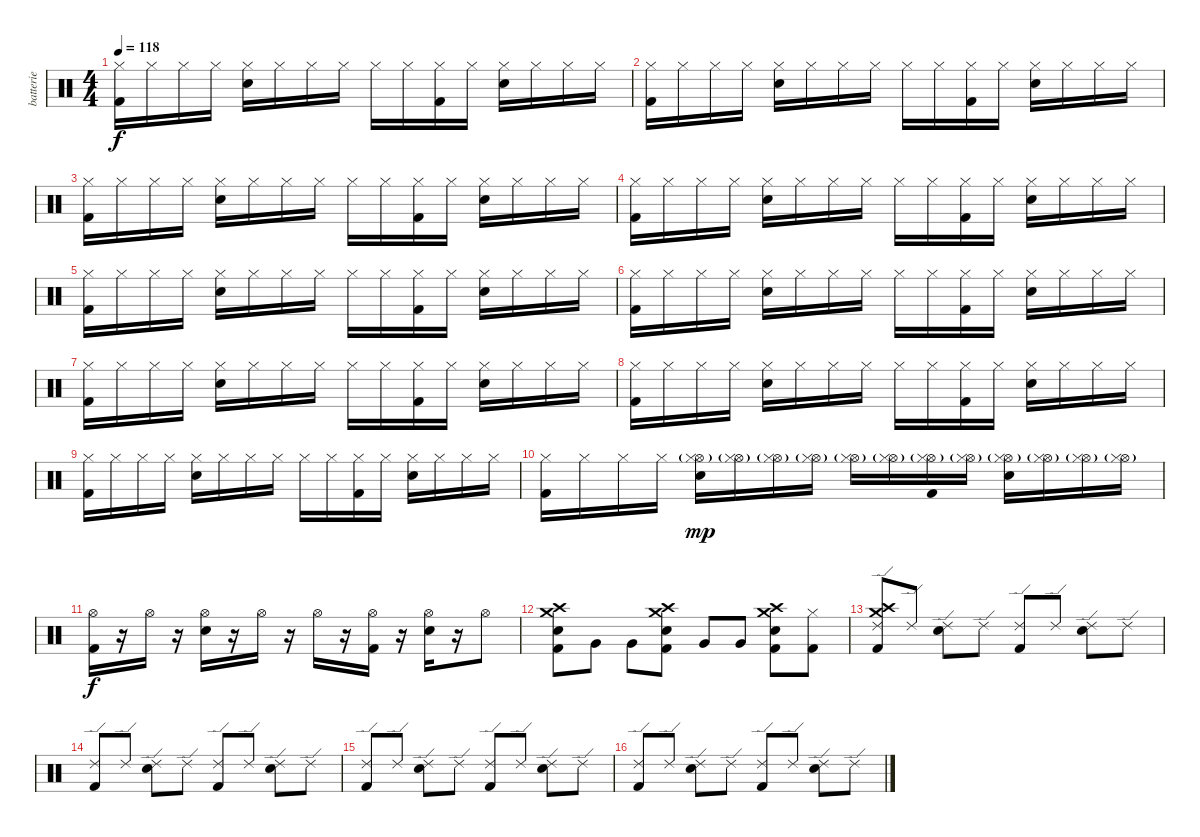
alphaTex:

\track ("batterie" "batterie") {instrument percussion}
\staff {score}
\articulation defaults
\ts (4 4)
\tempo 118
\clef neutral
\ks c
("Hi-Hat (closed)" "Kick (hit) 2").16{dy f} "Hi-Hat (closed)".16 "Hi-Hat (closed)".16 "Hi-Hat (closed)".16 ("Hi-Hat (closed)" "Electric Snare (hit)").16 "Hi-Hat (closed)".16 "Hi-Hat (closed)".16 "Hi-Hat (closed)".16 "Hi-Hat (closed)".16 "Hi-Hat (closed)".16 ("Hi-Hat (closed)" "Kick (hit) 2").16 "Hi-Hat (closed)".16 ("Hi-Hat (closed)" "Electric Snare (hit)").16 "Hi-Hat (closed)".16 "Hi-Hat (closed)".16 "Hi-Hat (closed)".16 |
("Hi-Hat (closed)" "Kick (hit) 2").16 "Hi-Hat (closed)".16 "Hi-Hat (closed)".16 "Hi-Hat (closed)".16 ("Hi-Hat (closed)" "Electric Snare (hit)").16 "Hi-Hat (closed)".16 "Hi-Hat (closed)".16 "Hi-Hat (closed)".16 "Hi-Hat (closed)".16 "Hi-Hat (closed)".16 ("Hi-Hat (closed)" "Kick (hit) 2").16 "Hi-Hat (closed)".16 ("Hi-Hat (closed)" "Electric Snare (hit)").16 "Hi-Hat (closed)".16 "Hi-Hat (closed)".16 "Hi-Hat (closed)".16 |
("Hi-Hat (closed)" "Kick (hit) 2").16 "Hi-Hat (closed)".16 "Hi-Hat (closed)".16 "Hi-Hat (closed)".16 ("Hi-Hat (closed)" "Electric Snare (hit)").16 "Hi-Hat (closed)".16 "Hi-Hat (closed)".16 "Hi-Hat (closed)".16 "Hi-Hat (closed)".16 "Hi-Hat (closed)".16 ("Hi-Hat (closed)" "Kick (hit) 2").16 "Hi-Hat (closed)".16 ("Hi-Hat (closed)" "Electric Snare (hit)").16 "Hi-Hat (closed)".16 "Hi-Hat (closed)".16 "Hi-Hat (closed)".16 |
("Hi-Hat (closed)" "Kick (hit) 2").16 "Hi-Hat (closed)".16 "Hi-Hat (closed)".16 "Hi-Hat (closed)".16 ("Hi-Hat (closed)" "Electric Snare (hit)").16 "Hi-Hat (closed)".16 "Hi-Hat (closed)".16 "Hi-Hat (closed)".16 "Hi-Hat (closed)".16 "Hi-Hat (closed)".16 ("Hi-Hat (closed)" "Kick (hit) 2").16 "Hi-Hat (closed)".16 ("Hi-Hat (closed)" "Electric Snare (hit)").16 "Hi-Hat (closed)".16 "Hi-Hat (closed)".16 "Hi-Hat (closed)".16 |
("Hi-Hat (closed)" "Kick (hit) 2").16 "Hi-Hat (closed)".16 "Hi-Hat (closed)".16 "Hi-Hat (closed)".16 ("Hi-Hat (closed)" "Electric Snare (hit)").16 "Hi-Hat (closed)".16 "Hi-Hat (closed)".16 "Hi-Hat (closed)".16 "Hi-Hat (closed)".16 "Hi-Hat (closed)".16 ("Hi-Hat (closed)" "Kick (hit) 2").16 "Hi-Hat (closed)".16 ("Hi-Hat (closed)" "Electric Snare (hit)").16 "Hi-Hat (closed)".16 "Hi-Hat (closed)".16 "Hi-Hat (closed)".16 |
("Hi-Hat (closed)" "Kick (hit) 2").16 "Hi-Hat (closed)".16 "Hi-Hat (closed)".16 "Hi-Hat (closed)".16 ("Hi-Hat (closed)" "Electric Snare (hit)").16 "Hi-Hat (closed)".16 "Hi-Hat (closed)".16 "Hi-Hat (closed)".16 "Hi-Hat (closed)".16 "Hi-Hat (closed)".16 ("Hi-Hat (closed)" "Kick (hit) 2").16 "Hi-Hat (closed)".16 ("Hi-Hat (closed)" "Electric Snare (hit)").16 "Hi-Hat (closed)".16 "Hi-Hat (closed)".16 "Hi-Hat (closed)".16 |
("Hi-Hat (closed)" "Kick (hit) 2").16 "Hi-Hat (closed)".16 "Hi-Hat (closed)".16 "Hi-Hat (closed)".16 ("Hi-Hat (closed)" "Electric Snare (hit)").16 "Hi-Hat (closed)".16 "Hi-Hat (closed)".16 "Hi-Hat (closed)".16 "Hi-Hat (closed)".16 "Hi-Hat (closed)".16 ("Hi-Hat (closed)" "Kick (hit) 2").16 "Hi-Hat (closed)".16 ("Hi-Hat (closed)" "Electric Snare (hit)").16 "Hi-Hat (closed)".16 "Hi-Hat (closed)".16 "Hi-Hat (closed)".16 |
("Hi-Hat (closed)" "Kick (hit) 2").16 "Hi-Hat (closed)".16 "Hi-Hat (closed)".16 "Hi-Hat (closed)".16 ("Hi-Hat (closed)" "Electric Snare (hit)").16 "Hi-Hat (closed)".16 "Hi-Hat (closed)".16 "Hi-Hat (closed)".16 "Hi-Hat (closed)".16 "Hi-Hat (closed)".16 ("Hi-Hat (closed)" "Kick (hit) 2").16 "Hi-Hat (closed)".16 ("Hi-Hat (closed)" "Electric Snare (hit)").16 "Hi-Hat (closed)".16 "Hi-Hat (closed)".16 "Hi-Hat (closed)".16 |
("Hi-Hat (closed)" "Kick (hit) 2").16 "Hi-Hat (closed)".16 "Hi-Hat (closed)".16 "Hi-Hat (closed)".16 ("Hi-Hat (closed)" "Electric Snare (hit)").16 "Hi-Hat (closed)".16 "Hi-Hat (closed)".16 "Hi-Hat (closed)".16 "Hi-Hat (closed)".16 "Hi-Hat (closed)".16 ("Hi-Hat (closed)" "Kick (hit) 2").16 "Hi-Hat (closed)".16 ("Hi-Hat (closed)" "Electric Snare (hit)").16 "Hi-Hat (closed)".16 "Hi-Hat (closed)".16 "Hi-Hat (closed)".16 |
("Hi-Hat (closed)" "Kick (hit) 2").16 "Hi-Hat (closed)".16 "Hi-Hat (closed)".16 "Hi-Hat (closed)".16 ("Hi-Hat (open)"{g} "Hi-Hat (closed)" "Electric Snare (hit)").16{dy mp} ("Hi-Hat (open)"{g} "Hi-Hat (closed)").16 ("Hi-Hat (open)"{g} "Hi-Hat (closed)").16 ("Hi-Hat (open)"{g} "Hi-Hat (closed)").16 ("Hi-Hat (open)"{g} "Hi-Hat (closed)").16 ("Hi-Hat (open)"{g} "Hi-Hat (closed)").16 ("Hi-Hat (open)"{g} "Hi-Hat (closed)" "Kick (hit) 2").16 ("Hi-Hat (open)"{g} "Hi-Hat (closed)").16 ("Hi-Hat (open)"{g} "Hi-Hat (closed)" "Electric Snare (hit)").16 ("Hi-Hat (open)"{g} "Hi-Hat (closed)").16 ("Hi-Hat (open)"{g} "Hi-Hat (closed)").16 ("Hi-Hat (open)"{g} "Hi-Hat (closed)").16 |
("Hi-Hat (open)" "Kick (hit) 2").16{dy f} r.16 "Hi-Hat (open)".16 r.16 ("Hi-Hat (open)" "Electric Snare (hit)").16 r.16 "Hi-Hat (open)".16 r.16 "Hi-Hat (open)".16 r.16 ("Hi-Hat (open)" "Kick (hit) 2").16 r.16 ("Hi-Hat (open)" "Electric Snare (hit)").16 r.16 "Hi-Hat (open)".8 |
("Crash medium (hit)" "Crash high (hit)" "Electric Snare (hit)" "Kick (hit) 2").8 "Very Low Tom (hit)".8 "Very Low Tom (hit)".8 ("Crash medium (hit)" "Crash high (hit)" "Electric Snare (hit)" "Kick (hit) 2").8 "Very Low Tom (hit)".8 "Very Low Tom (hit)".8 ("Crash medium (hit)" "Crash high (hit)" "Electric Snare (hit)" "Kick (hit) 2").8 ("Hi-Hat (closed)" "Kick (hit) 2").8 |
("Crash medium (hit)" "Crash high (hit)" "Ride (edge) 2" "Kick (hit) 2").8 "Ride (edge) 2".8 ("Ride (edge) 2" "Electric Snare (hit)").8 "Ride (edge) 2".8 ("Ride (edge) 2" "Kick (hit) 2").8 "Ride (edge) 2".8 ("Ride (edge) 2" "Electric Snare (hit)").8 "Ride (edge) 2".8 |
("Ride (edge) 2" "Kick (hit) 2").8 "Ride (edge) 2".8 ("Ride (edge) 2" "Electric Snare (hit)").8 "Ride (edge) 2".8 ("Ride (edge) 2" "Kick (hit) 2").8 "Ride (edge) 2".8 ("Ride (edge) 2" "Electric Snare (hit)").8 "Ride (edge) 2".8 |
("Ride (edge) 2" "Kick (hit) 2").8 "Ride (edge) 2".8 ("Ride (edge) 2" "Electric Snare (hit)").8 "Ride (edge) 2".8 ("Ride (edge) 2" "Kick (hit) 2").8 "Ride (edge) 2".8 ("Ride (edge) 2" "Electric Snare (hit)").8 "Ride (edge) 2".8 |
("Ride (edge) 2" "Kick (hit) 2").8 "Ride (edge) 2".8 ("Ride (edge) 2" "Electric Snare (hit)").8 "Ride (edge) 2".8 ("Ride (edge) 2" "Kick (hit) 2").8 "Ride (edge) 2".8 ("Ride (edge) 2" "Electric Snare (hit)").8 "Ride (edge) 2".8
